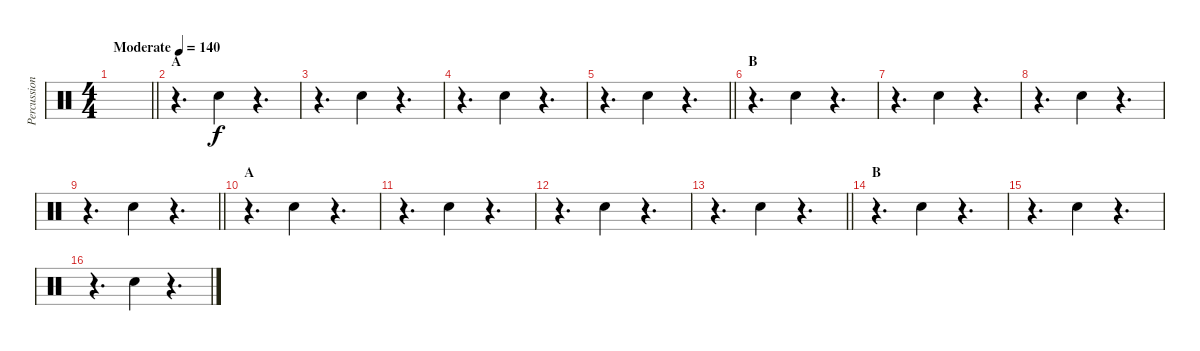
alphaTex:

\track ("Percussion" "Percussion") {instrument percussion}
\staff {score}
\articulation defaults
\ts (4 4)
\tempo (140 "Moderate")
\clef neutral
\barLineRight lightlight
\ks c
|
\section ("" "A")
r.4{d} "Hand Clap (hit)".4 r.4{d} |
r.4{d} "Hand Clap (hit)".4 r.4{d} |
r.4{d} "Hand Clap (hit)".4 r.4{d} |
\barLineRight lightlight
r.4{d} "Hand Clap (hit)".4 r.4{d} |
\section ("" "B")
r.4{d} "Hand Clap (hit)".4 r.4{d} |
r.4{d} "Hand Clap (hit)".4 r.4{d} |
r.4{d} "Hand Clap (hit)".4 r.4{d} |
\barLineRight lightlight
r.4{d} "Hand Clap (hit)".4 r.4{d} |
\section ("" "A")
r.4{d} "Hand Clap (hit)".4 r.4{d} |
r.4{d} "Hand Clap (hit)".4 r.4{d} |
r.4{d} "Hand Clap (hit)".4 r.4{d} |
\barLineRight lightlight
r.4{d} "Hand Clap (hit)".4 r.4{d} |
\section ("" "B")
r.4{d} "Hand Clap (hit)".4 r.4{d} |
r.4{d} "Hand Clap (hit)".4 r.4{d} |
r.4{d} "Hand Clap (hit)".4 r.4{d}
